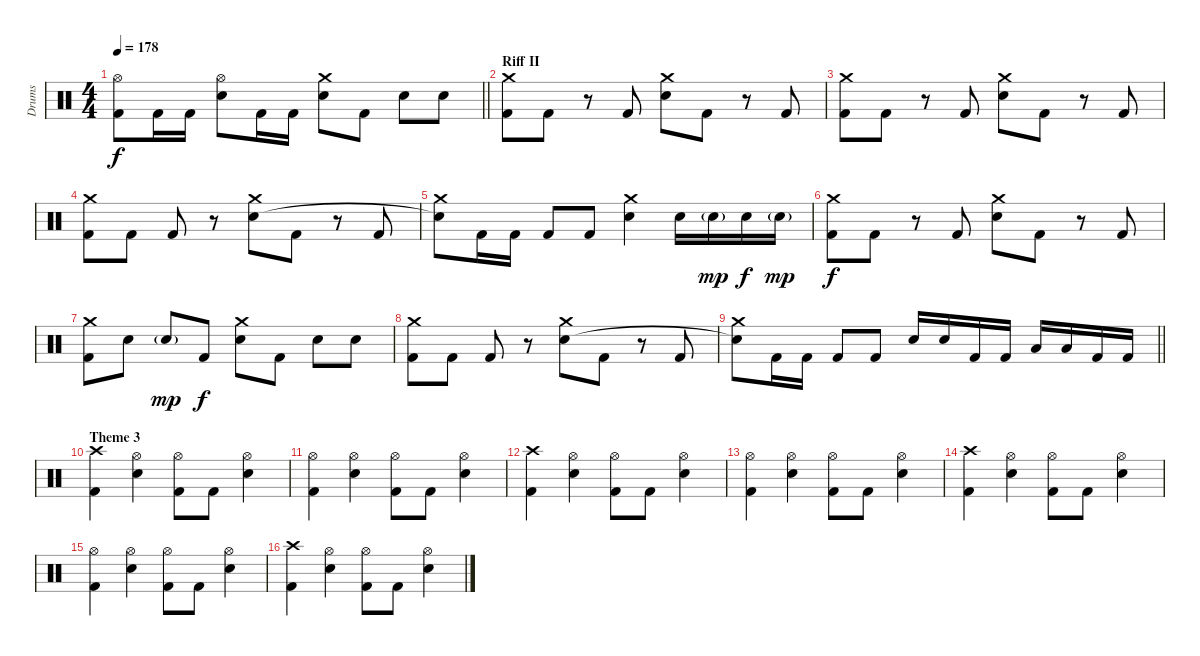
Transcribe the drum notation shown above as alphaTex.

\track ("Drums" "Drums") {instrument percussion}
\staff {score}
\articulation defaults
\ts (4 4)
\tempo 178
\clef neutral
\barLineRight lightlight
\ks c
("Hi-Hat (open)" "Kick (hit) 2").8{dy f} "Kick (hit) 2".16 "Kick (hit) 2".16 ("Hi-Hat (open)" "Snare (hit) 2").8 "Kick (hit) 2".16 "Kick (hit) 2".16 ("Crash medium (hit)" "Snare (hit) 2").8 "Kick (hit) 2".8 "Snare (hit) 2".8 "Snare (hit) 2".8 |
\section ("" "Riff II")
("Crash medium (hit)" "Kick (hit) 2").8 "Kick (hit) 2".8 r.8 "Kick (hit) 2".8 ("Crash medium (hit)" "Snare (hit) 2").8 "Kick (hit) 2".8 r.8 "Kick (hit) 2".8 |
("Crash medium (hit)" "Kick (hit) 2").8 "Kick (hit) 2".8 r.8 "Kick (hit) 2".8 ("Crash medium (hit)" "Snare (hit) 2").8 "Kick (hit) 2".8 r.8 "Kick (hit) 2".8 |
("Crash medium (hit)" "Kick (hit) 2").8 "Kick (hit) 2".8 "Kick (hit) 2".8 r.8 ("Crash medium (hit)" "Snare (hit) 2").8 "Kick (hit) 2".8 r.8 "Kick (hit) 2".8 |
("Crash medium (hit)" "Snare (hit)"{t}).8 "Kick (hit) 2".16 "Kick (hit) 2".16 "Kick (hit) 2".8 "Kick (hit) 2".8 ("Crash medium (hit)" "Snare (hit) 2").4 "Snare (hit) 2".16 "Snare (hit) 2"{g}.16{dy mp} "Snare (hit) 2".16{dy f} "Snare (hit) 2"{g}.16{dy mp} |
("Crash medium (hit)" "Kick (hit) 2").8{dy f} "Kick (hit) 2".8 r.8 "Kick (hit) 2".8 ("Crash medium (hit)" "Snare (hit) 2").8 "Kick (hit) 2".8 r.8 "Kick (hit) 2".8 |
("Crash medium (hit)" "Kick (hit) 2").8 "Snare (hit) 2".8 "Snare (hit) 2"{g}.8{dy mp} "Kick (hit) 2".8{dy f} ("Crash medium (hit)" "Snare (hit) 2").8 "Kick (hit) 2".8 "Snare (hit) 2".8 "Snare (hit) 2".8 |
("Crash medium (hit)" "Kick (hit) 2").8 "Kick (hit) 2".8 "Kick (hit) 2".8 r.8 ("Crash medium (hit)" "Snare (hit) 2").8 "Kick (hit) 2".8 r.8 "Kick (hit) 2".8 |
\barLineRight lightlight
("Crash medium (hit)" "Snare (hit)"{t}).8 "Kick (hit) 2".16 "Kick (hit) 2".16 "Kick (hit) 2".8 "Kick (hit) 2".8 "Snare (hit) 2".16 "Snare (hit) 2".16 "Kick (hit) 2".16 "Kick (hit) 2".16 "Low Tom (hit)".16 "Low Tom (hit)".16 "Kick (hit) 2".16 "Kick (hit) 2".16 |
\section ("" "Theme 3")
("Crash high (hit)" "Kick (hit) 2").4 ("Hi-Hat (open)" "Snare (hit) 2").4 ("Hi-Hat (open)" "Kick (hit) 2").8 "Kick (hit) 2".8 ("Hi-Hat (open)" "Snare (hit) 2").4 |
("Hi-Hat (open)" "Kick (hit) 2").4 ("Hi-Hat (open)" "Snare (hit) 2").4 ("Hi-Hat (open)" "Kick (hit) 2").8 "Kick (hit) 2".8 ("Hi-Hat (open)" "Snare (hit) 2").4 |
("Crash high (hit)" "Kick (hit) 2").4 ("Hi-Hat (open)" "Snare (hit) 2").4 ("Hi-Hat (open)" "Kick (hit) 2").8 "Kick (hit) 2".8 ("Hi-Hat (open)" "Snare (hit) 2").4 |
("Hi-Hat (open)" "Kick (hit) 2").4 ("Hi-Hat (open)" "Snare (hit) 2").4 ("Hi-Hat (open)" "Kick (hit) 2").8 "Kick (hit) 2".8 ("Hi-Hat (open)" "Snare (hit) 2").4 |
("Crash high (hit)" "Kick (hit) 2").4 ("Hi-Hat (open)" "Snare (hit) 2").4 ("Hi-Hat (open)" "Kick (hit) 2").8 "Kick (hit) 2".8 ("Hi-Hat (open)" "Snare (hit) 2").4 |
("Hi-Hat (open)" "Kick (hit) 2").4 ("Hi-Hat (open)" "Snare (hit) 2").4 ("Hi-Hat (open)" "Kick (hit) 2").8 "Kick (hit) 2".8 ("Hi-Hat (open)" "Snare (hit) 2").4 |
("Crash high (hit)" "Kick (hit) 2").4 ("Hi-Hat (open)" "Snare (hit) 2").4 ("Hi-Hat (open)" "Kick (hit) 2").8 "Kick (hit) 2".8 ("Hi-Hat (open)" "Snare (hit) 2").4
